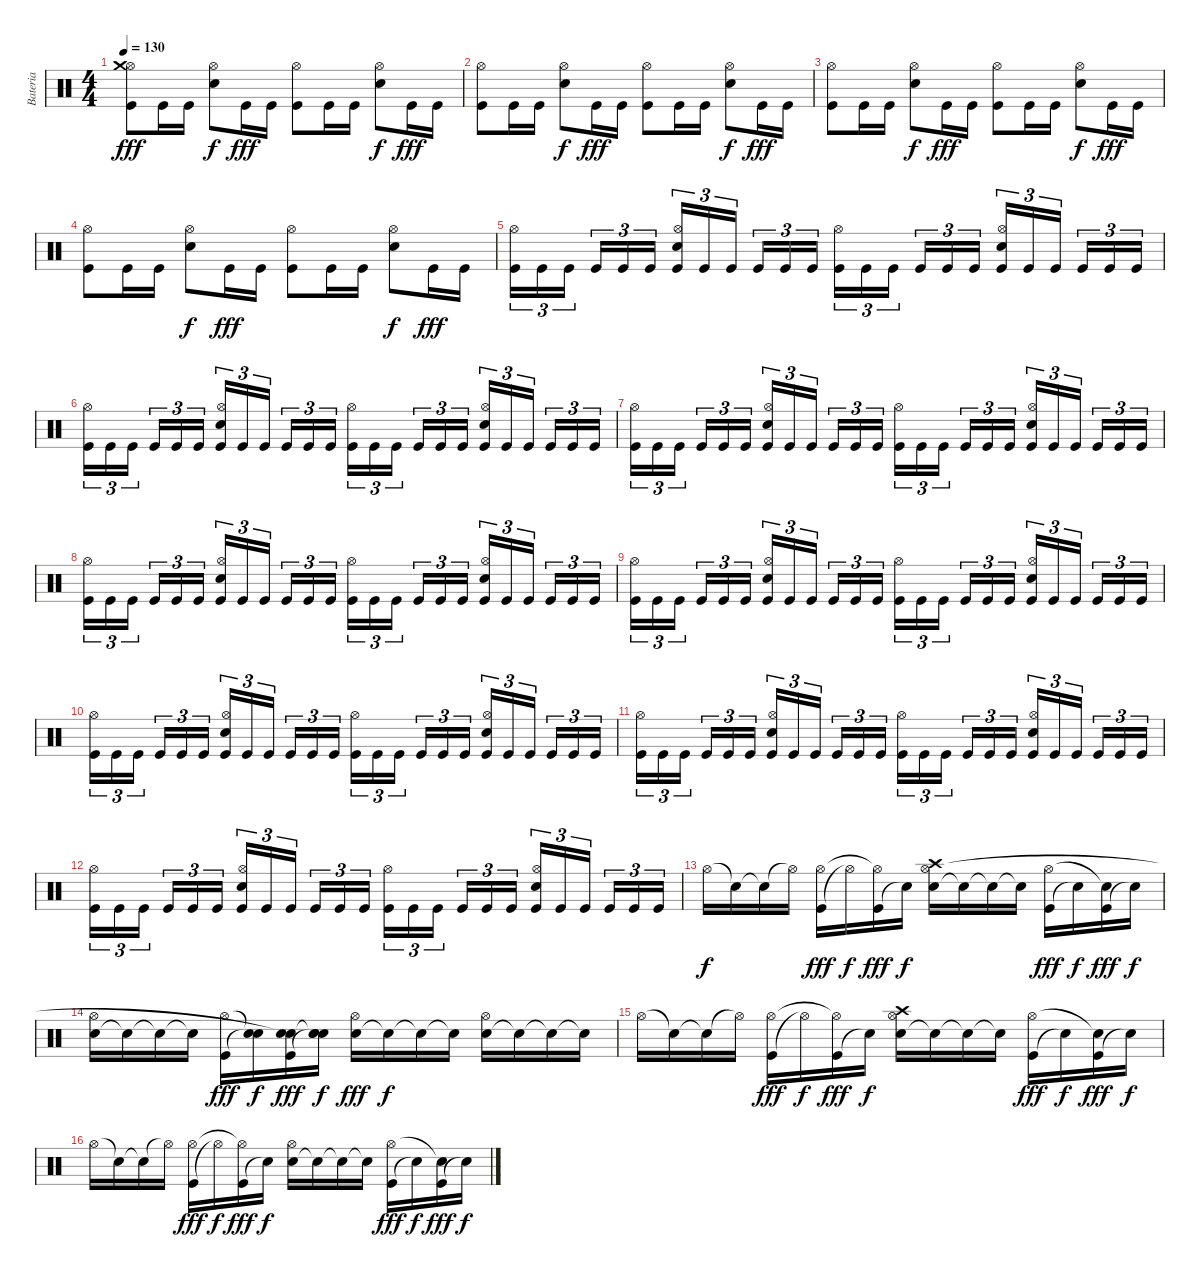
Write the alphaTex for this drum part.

\track ("Bateria" "Bateria") {instrument percussion}
\staff {score}
\articulation defaults
\ts (4 4)
\tempo 130
\clef neutral
\ks c
("Kick (hit)" "Hi-Hat (open)" "Crash medium (hit)").8{dy fff} "Kick (hit)".16 "Kick (hit)".16 ("Electric Snare (hit)" "Hi-Hat (open)").8{dy f} "Kick (hit)".16{dy fff} "Kick (hit)".16 ("Kick (hit)" "Hi-Hat (open)").8 "Kick (hit)".16 "Kick (hit)".16 ("Electric Snare (hit)" "Hi-Hat (open)").8{dy f} "Kick (hit)".16{dy fff} "Kick (hit)".16 |
("Kick (hit)" "Hi-Hat (open)").8 "Kick (hit)".16 "Kick (hit)".16 ("Electric Snare (hit)" "Hi-Hat (open)").8{dy f} "Kick (hit)".16{dy fff} "Kick (hit)".16 ("Kick (hit)" "Hi-Hat (open)").8 "Kick (hit)".16 "Kick (hit)".16 ("Electric Snare (hit)" "Hi-Hat (open)").8{dy f} "Kick (hit)".16{dy fff} "Kick (hit)".16 |
("Kick (hit)" "Hi-Hat (open)").8 "Kick (hit)".16 "Kick (hit)".16 ("Electric Snare (hit)" "Hi-Hat (open)").8{dy f} "Kick (hit)".16{dy fff} "Kick (hit)".16 ("Kick (hit)" "Hi-Hat (open)").8 "Kick (hit)".16 "Kick (hit)".16 ("Electric Snare (hit)" "Hi-Hat (open)").8{dy f} "Kick (hit)".16{dy fff} "Kick (hit)".16 |
("Kick (hit)" "Hi-Hat (open)").8 "Kick (hit)".16 "Kick (hit)".16 ("Electric Snare (hit)" "Hi-Hat (open)").8{dy f} "Kick (hit)".16{dy fff} "Kick (hit)".16 ("Kick (hit)" "Hi-Hat (open)").8 "Kick (hit)".16 "Kick (hit)".16 ("Electric Snare (hit)" "Hi-Hat (open)").8{dy f} "Kick (hit)".16{dy fff} "Kick (hit)".16 |
("Kick (hit)" "Hi-Hat (open)").16{tu (3 2)} "Kick (hit)".16{tu (3 2)} "Kick (hit)".16{tu (3 2)} "Kick (hit)".16{tu (3 2)} "Kick (hit)".16{tu (3 2)} "Kick (hit)".16{tu (3 2)} ("Kick (hit)" "Electric Snare (hit)" "Hi-Hat (open)").16{tu (3 2)} "Kick (hit)".16{tu (3 2)} "Kick (hit)".16{tu (3 2)} "Kick (hit)".16{tu (3 2)} "Kick (hit)".16{tu (3 2)} "Kick (hit)".16{tu (3 2)} ("Kick (hit)" "Hi-Hat (open)").16{tu (3 2)} "Kick (hit)".16{tu (3 2)} "Kick (hit)".16{tu (3 2)} "Kick (hit)".16{tu (3 2)} "Kick (hit)".16{tu (3 2)} "Kick (hit)".16{tu (3 2)} ("Kick (hit)" "Electric Snare (hit)" "Hi-Hat (open)").16{tu (3 2)} "Kick (hit)".16{tu (3 2)} "Kick (hit)".16{tu (3 2)} "Kick (hit)".16{tu (3 2)} "Kick (hit)".16{tu (3 2)} "Kick (hit)".16{tu (3 2)} |
("Kick (hit)" "Hi-Hat (open)").16{tu (3 2)} "Kick (hit)".16{tu (3 2)} "Kick (hit)".16{tu (3 2)} "Kick (hit)".16{tu (3 2)} "Kick (hit)".16{tu (3 2)} "Kick (hit)".16{tu (3 2)} ("Kick (hit)" "Electric Snare (hit)" "Hi-Hat (open)").16{tu (3 2)} "Kick (hit)".16{tu (3 2)} "Kick (hit)".16{tu (3 2)} "Kick (hit)".16{tu (3 2)} "Kick (hit)".16{tu (3 2)} "Kick (hit)".16{tu (3 2)} ("Kick (hit)" "Hi-Hat (open)").16{tu (3 2)} "Kick (hit)".16{tu (3 2)} "Kick (hit)".16{tu (3 2)} "Kick (hit)".16{tu (3 2)} "Kick (hit)".16{tu (3 2)} "Kick (hit)".16{tu (3 2)} ("Kick (hit)" "Electric Snare (hit)" "Hi-Hat (open)").16{tu (3 2)} "Kick (hit)".16{tu (3 2)} "Kick (hit)".16{tu (3 2)} "Kick (hit)".16{tu (3 2)} "Kick (hit)".16{tu (3 2)} "Kick (hit)".16{tu (3 2)} |
("Kick (hit)" "Hi-Hat (open)").16{tu (3 2)} "Kick (hit)".16{tu (3 2)} "Kick (hit)".16{tu (3 2)} "Kick (hit)".16{tu (3 2)} "Kick (hit)".16{tu (3 2)} "Kick (hit)".16{tu (3 2)} ("Kick (hit)" "Electric Snare (hit)" "Hi-Hat (open)").16{tu (3 2)} "Kick (hit)".16{tu (3 2)} "Kick (hit)".16{tu (3 2)} "Kick (hit)".16{tu (3 2)} "Kick (hit)".16{tu (3 2)} "Kick (hit)".16{tu (3 2)} ("Kick (hit)" "Hi-Hat (open)").16{tu (3 2)} "Kick (hit)".16{tu (3 2)} "Kick (hit)".16{tu (3 2)} "Kick (hit)".16{tu (3 2)} "Kick (hit)".16{tu (3 2)} "Kick (hit)".16{tu (3 2)} ("Kick (hit)" "Electric Snare (hit)" "Hi-Hat (open)").16{tu (3 2)} "Kick (hit)".16{tu (3 2)} "Kick (hit)".16{tu (3 2)} "Kick (hit)".16{tu (3 2)} "Kick (hit)".16{tu (3 2)} "Kick (hit)".16{tu (3 2)} |
("Kick (hit)" "Hi-Hat (open)").16{tu (3 2)} "Kick (hit)".16{tu (3 2)} "Kick (hit)".16{tu (3 2)} "Kick (hit)".16{tu (3 2)} "Kick (hit)".16{tu (3 2)} "Kick (hit)".16{tu (3 2)} ("Kick (hit)" "Electric Snare (hit)" "Hi-Hat (open)").16{tu (3 2)} "Kick (hit)".16{tu (3 2)} "Kick (hit)".16{tu (3 2)} "Kick (hit)".16{tu (3 2)} "Kick (hit)".16{tu (3 2)} "Kick (hit)".16{tu (3 2)} ("Kick (hit)" "Hi-Hat (open)").16{tu (3 2)} "Kick (hit)".16{tu (3 2)} "Kick (hit)".16{tu (3 2)} "Kick (hit)".16{tu (3 2)} "Kick (hit)".16{tu (3 2)} "Kick (hit)".16{tu (3 2)} ("Kick (hit)" "Electric Snare (hit)" "Hi-Hat (open)").16{tu (3 2)} "Kick (hit)".16{tu (3 2)} "Kick (hit)".16{tu (3 2)} "Kick (hit)".16{tu (3 2)} "Kick (hit)".16{tu (3 2)} "Kick (hit)".16{tu (3 2)} |
("Kick (hit)" "Hi-Hat (open)").16{tu (3 2)} "Kick (hit)".16{tu (3 2)} "Kick (hit)".16{tu (3 2)} "Kick (hit)".16{tu (3 2)} "Kick (hit)".16{tu (3 2)} "Kick (hit)".16{tu (3 2)} ("Kick (hit)" "Electric Snare (hit)" "Hi-Hat (open)").16{tu (3 2)} "Kick (hit)".16{tu (3 2)} "Kick (hit)".16{tu (3 2)} "Kick (hit)".16{tu (3 2)} "Kick (hit)".16{tu (3 2)} "Kick (hit)".16{tu (3 2)} ("Kick (hit)" "Hi-Hat (open)").16{tu (3 2)} "Kick (hit)".16{tu (3 2)} "Kick (hit)".16{tu (3 2)} "Kick (hit)".16{tu (3 2)} "Kick (hit)".16{tu (3 2)} "Kick (hit)".16{tu (3 2)} ("Kick (hit)" "Electric Snare (hit)" "Hi-Hat (open)").16{tu (3 2)} "Kick (hit)".16{tu (3 2)} "Kick (hit)".16{tu (3 2)} "Kick (hit)".16{tu (3 2)} "Kick (hit)".16{tu (3 2)} "Kick (hit)".16{tu (3 2)} |
("Kick (hit)" "Hi-Hat (open)").16{tu (3 2)} "Kick (hit)".16{tu (3 2)} "Kick (hit)".16{tu (3 2)} "Kick (hit)".16{tu (3 2)} "Kick (hit)".16{tu (3 2)} "Kick (hit)".16{tu (3 2)} ("Kick (hit)" "Electric Snare (hit)" "Hi-Hat (open)").16{tu (3 2)} "Kick (hit)".16{tu (3 2)} "Kick (hit)".16{tu (3 2)} "Kick (hit)".16{tu (3 2)} "Kick (hit)".16{tu (3 2)} "Kick (hit)".16{tu (3 2)} ("Kick (hit)" "Hi-Hat (open)").16{tu (3 2)} "Kick (hit)".16{tu (3 2)} "Kick (hit)".16{tu (3 2)} "Kick (hit)".16{tu (3 2)} "Kick (hit)".16{tu (3 2)} "Kick (hit)".16{tu (3 2)} ("Kick (hit)" "Electric Snare (hit)" "Hi-Hat (open)").16{tu (3 2)} "Kick (hit)".16{tu (3 2)} "Kick (hit)".16{tu (3 2)} "Kick (hit)".16{tu (3 2)} "Kick (hit)".16{tu (3 2)} "Kick (hit)".16{tu (3 2)} |
("Kick (hit)" "Hi-Hat (open)").16{tu (3 2)} "Kick (hit)".16{tu (3 2)} "Kick (hit)".16{tu (3 2)} "Kick (hit)".16{tu (3 2)} "Kick (hit)".16{tu (3 2)} "Kick (hit)".16{tu (3 2)} ("Kick (hit)" "Electric Snare (hit)" "Hi-Hat (open)").16{tu (3 2)} "Kick (hit)".16{tu (3 2)} "Kick (hit)".16{tu (3 2)} "Kick (hit)".16{tu (3 2)} "Kick (hit)".16{tu (3 2)} "Kick (hit)".16{tu (3 2)} ("Kick (hit)" "Hi-Hat (open)").16{tu (3 2)} "Kick (hit)".16{tu (3 2)} "Kick (hit)".16{tu (3 2)} "Kick (hit)".16{tu (3 2)} "Kick (hit)".16{tu (3 2)} "Kick (hit)".16{tu (3 2)} ("Kick (hit)" "Electric Snare (hit)" "Hi-Hat (open)").16{tu (3 2)} "Kick (hit)".16{tu (3 2)} "Kick (hit)".16{tu (3 2)} "Kick (hit)".16{tu (3 2)} "Kick (hit)".16{tu (3 2)} "Kick (hit)".16{tu (3 2)} |
("Kick (hit)" "Hi-Hat (open)").16{tu (3 2)} "Kick (hit)".16{tu (3 2)} "Kick (hit)".16{tu (3 2)} "Kick (hit)".16{tu (3 2)} "Kick (hit)".16{tu (3 2)} "Kick (hit)".16{tu (3 2)} ("Kick (hit)" "Electric Snare (hit)" "Hi-Hat (open)").16{tu (3 2)} "Kick (hit)".16{tu (3 2)} "Kick (hit)".16{tu (3 2)} "Kick (hit)".16{tu (3 2)} "Kick (hit)".16{tu (3 2)} "Kick (hit)".16{tu (3 2)} ("Kick (hit)" "Hi-Hat (open)").16{tu (3 2)} "Kick (hit)".16{tu (3 2)} "Kick (hit)".16{tu (3 2)} "Kick (hit)".16{tu (3 2)} "Kick (hit)".16{tu (3 2)} "Kick (hit)".16{tu (3 2)} ("Kick (hit)" "Electric Snare (hit)" "Hi-Hat (open)").16{tu (3 2)} "Kick (hit)".16{tu (3 2)} "Kick (hit)".16{tu (3 2)} "Kick (hit)".16{tu (3 2)} "Kick (hit)".16{tu (3 2)} "Kick (hit)".16{tu (3 2)} |
"Hi-Hat (open)".16{dy f} "Snare (hit)"{t}.16 "Snare (hit)"{t}.16 "Hi-Hat (open)"{t}.16 ("Kick (hit)" "Hi-Hat (open)").16{dy fff} "Hi-Hat (open)"{t}.16{dy f} ("Kick (hit)" "Hi-Hat (open)"{t}).16{dy fff} "Snare (hit)"{t}.16{dy f} ("Electric Snare (hit)" "Crash high (hit)" "Hi-Hat (open)").16 "Snare (hit)"{t}.16 "Snare (hit)"{t}.16 "Snare (hit)"{t}.16 ("Kick (hit)" "Hi-Hat (open)").16{dy fff} "Snare (hit)"{t}.16{dy f} ("Kick (hit)" "Snare (hit)"{t}).16{dy fff} "Snare (hit)"{t}.16{dy f} |
("Electric Snare (hit)" "Hi-Hat (open)").16 "Snare (hit)"{t}.16 "Snare (hit)"{t}.16 "Snare (hit)"{t}.16 ("Kick (hit)" "Hi-Hat (open)").16{dy fff} ("Snare (hit)"{t} "Snare (hit)"{t}).16{dy f} ("Kick (hit)" "Electric Snare (hit)" "Snare (hit)"{t}).16{dy fff} ("Snare (hit)"{t} "Electric Snare (hit)" "Snare (hit)"{t}).16{dy f} ("Electric Snare (hit)" "Hi-Hat (open)").16{dy fff} "Snare (hit)"{t}.16{dy f} "Snare (hit)"{t}.16 "Snare (hit)"{t}.16 ("Electric Snare (hit)" "Hi-Hat (open)").16 "Snare (hit)"{t}.16 "Snare (hit)"{t}.16 "Snare (hit)"{t}.16 |
"Hi-Hat (open)".16 "Snare (hit)"{t}.16 "Snare (hit)"{t}.16 "Hi-Hat (open)"{t}.16 ("Kick (hit)" "Hi-Hat (open)").16{dy fff} "Hi-Hat (open)"{t}.16{dy f} ("Kick (hit)" "Hi-Hat (open)"{t}).16{dy fff} "Snare (hit)"{t}.16{dy f} ("Electric Snare (hit)" "Crash high (hit)" "Hi-Hat (open)").16 "Snare (hit)"{t}.16 "Snare (hit)"{t}.16 "Snare (hit)"{t}.16 ("Kick (hit)" "Hi-Hat (open)").16{dy fff} "Snare (hit)"{t}.16{dy f} ("Kick (hit)" "Snare (hit)"{t}).16{dy fff} "Snare (hit)"{t}.16{dy f} |
"Hi-Hat (open)".16 "Snare (hit)"{t}.16 "Snare (hit)"{t}.16 "Hi-Hat (open)"{t}.16 ("Kick (hit)" "Hi-Hat (open)").16{dy fff} "Hi-Hat (open)"{t}.16{dy f} ("Kick (hit)" "Hi-Hat (open)"{t}).16{dy fff} "Snare (hit)"{t}.16{dy f} ("Electric Snare (hit)" "Hi-Hat (open)").16 "Snare (hit)"{t}.16 "Snare (hit)"{t}.16 "Snare (hit)"{t}.16 ("Kick (hit)" "Hi-Hat (open)").16{dy fff} "Snare (hit)"{t}.16{dy f} ("Kick (hit)" "Snare (hit)"{t}).16{dy fff} "Snare (hit)"{t}.16{dy f}
